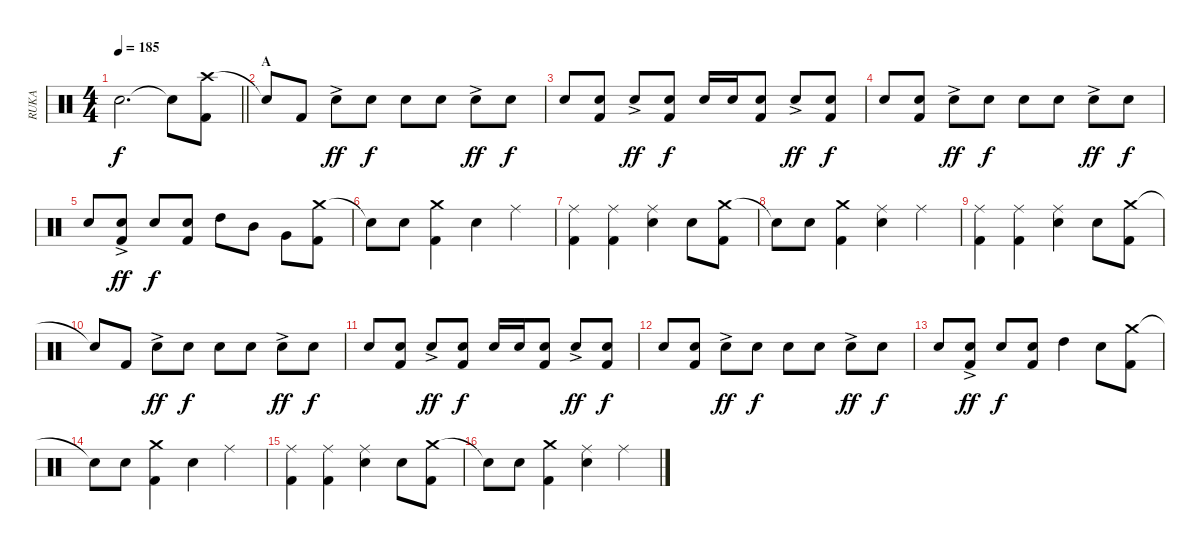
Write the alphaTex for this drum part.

\track ("RUKA" "RUKA") {instrument percussion}
\staff {score}
\articulation defaults
\ts (4 4)
\tempo 185
\clef neutral
\barLineRight lightlight
\ks c "Snare (hit)"{t}.2{d dy f} "Snare (hit)"{t}.8
("Crash high (hit)" "Kick (hit) 2").8 |
\section ("" "A")
"Snare (hit)"{t}.8 "Kick (hit) 2".8 "Electric Snare (hit)"{ac}.8{dy ff} "Electric Snare (hit)".8{dy f} "Electric Snare (hit)".8 "Electric Snare (hit)".8 "Electric Snare (hit)"{ac}.8{dy ff} "Electric Snare (hit)".8{dy f} |
"Electric Snare (hit)".8 ("Electric Snare (hit)" "Kick (hit) 2").8 "Electric Snare (hit)"{ac}.8{dy ff} ("Electric Snare (hit)" "Kick (hit) 2").8{dy f} "Electric Snare (hit)".16 "Electric Snare (hit)".16 ("Electric Snare (hit)" "Kick (hit) 2").8 "Electric Snare (hit)"{ac}.8{dy ff} ("Electric Snare (hit)" "Kick (hit) 2").8{dy f} |
"Electric Snare (hit)".8 ("Electric Snare (hit)" "Kick (hit) 2").8 "Electric Snare (hit)"{ac}.8{dy ff} "Electric Snare (hit)".8{dy f} "Electric Snare (hit)".8 "Electric Snare (hit)".8 "Electric Snare (hit)"{ac}.8{dy ff} "Electric Snare (hit)".8{dy f} |
"Electric Snare (hit)".8 ("Electric Snare (hit)"{ac} "Kick (hit) 2").8{dy ff} "Electric Snare (hit)".8{dy f} ("Electric Snare (hit)" "Kick (hit) 2").8 "High Tom (hit)".8 "Mid Tom (hit)".8 "Very Low Tom (hit)".8 ("Crash medium (hit)" "Kick (hit) 2").8 |
"Snare (hit)"{t}.8 "Electric Snare (hit)".8 ("Crash medium (hit)" "Kick (hit) 2").4 "Electric Snare (hit)".4 "Ride (middle)".4 |
("Ride (middle)" "Kick (hit) 2").4 ("Ride (middle)" "Kick (hit) 2").4 ("Ride (middle)" "Electric Snare (hit)").4 "Electric Snare (hit)".8 ("Crash medium (hit)" "Kick (hit) 2").8 |
"Snare (hit)"{t}.8 "Electric Snare (hit)".8 ("Crash medium (hit)" "Kick (hit) 2").4 ("Ride (middle)" "Electric Snare (hit)").4 "Ride (middle)".4 |
("Ride (middle)" "Kick (hit) 2").4 ("Ride (middle)" "Kick (hit) 2").4 ("Ride (middle)" "Electric Snare (hit)").4 "Electric Snare (hit)".8 ("Crash medium (hit)" "Kick (hit) 2").8 |
"Snare (hit)"{t}.8 "Kick (hit) 2".8 "Electric Snare (hit)"{ac}.8{dy ff} "Electric Snare (hit)".8{dy f} "Electric Snare (hit)".8 "Electric Snare (hit)".8 "Electric Snare (hit)"{ac}.8{dy ff} "Electric Snare (hit)".8{dy f} |
"Electric Snare (hit)".8 ("Electric Snare (hit)" "Kick (hit) 2").8 "Electric Snare (hit)"{ac}.8{dy ff} ("Electric Snare (hit)" "Kick (hit) 2").8{dy f} "Electric Snare (hit)".16 "Electric Snare (hit)".16 ("Electric Snare (hit)" "Kick (hit) 2").8 "Electric Snare (hit)"{ac}.8{dy ff} ("Electric Snare (hit)" "Kick (hit) 2").8{dy f} |
"Electric Snare (hit)".8 ("Electric Snare (hit)" "Kick (hit) 2").8 "Electric Snare (hit)"{ac}.8{dy ff} "Electric Snare (hit)".8{dy f} "Electric Snare (hit)".8 "Electric Snare (hit)".8 "Electric Snare (hit)"{ac}.8{dy ff} "Electric Snare (hit)".8{dy f} |
"Electric Snare (hit)".8 ("Electric Snare (hit)"{ac} "Kick (hit) 2").8{dy ff} "Electric Snare (hit)".8{dy f} ("Electric Snare (hit)" "Kick (hit) 2").8 "High Tom (hit)".4 "Electric Snare (hit)".8 ("Crash medium (hit)" "Kick (hit) 2").8 |
"Snare (hit)"{t}.8 "Electric Snare (hit)".8 ("Crash medium (hit)" "Kick (hit) 2").4 "Electric Snare (hit)".4 "Ride (middle)".4 |
("Ride (middle)" "Kick (hit) 2").4 ("Ride (middle)" "Kick (hit) 2").4 ("Ride (middle)" "Electric Snare (hit)").4 "Electric Snare (hit)".8 ("Crash medium (hit)" "Kick (hit) 2").8 |
"Snare (hit)"{t}.8 "Electric Snare (hit)".8 ("Crash medium (hit)" "Kick (hit) 2").4 ("Ride (middle)" "Electric Snare (hit)").4 "Ride (middle)".4
